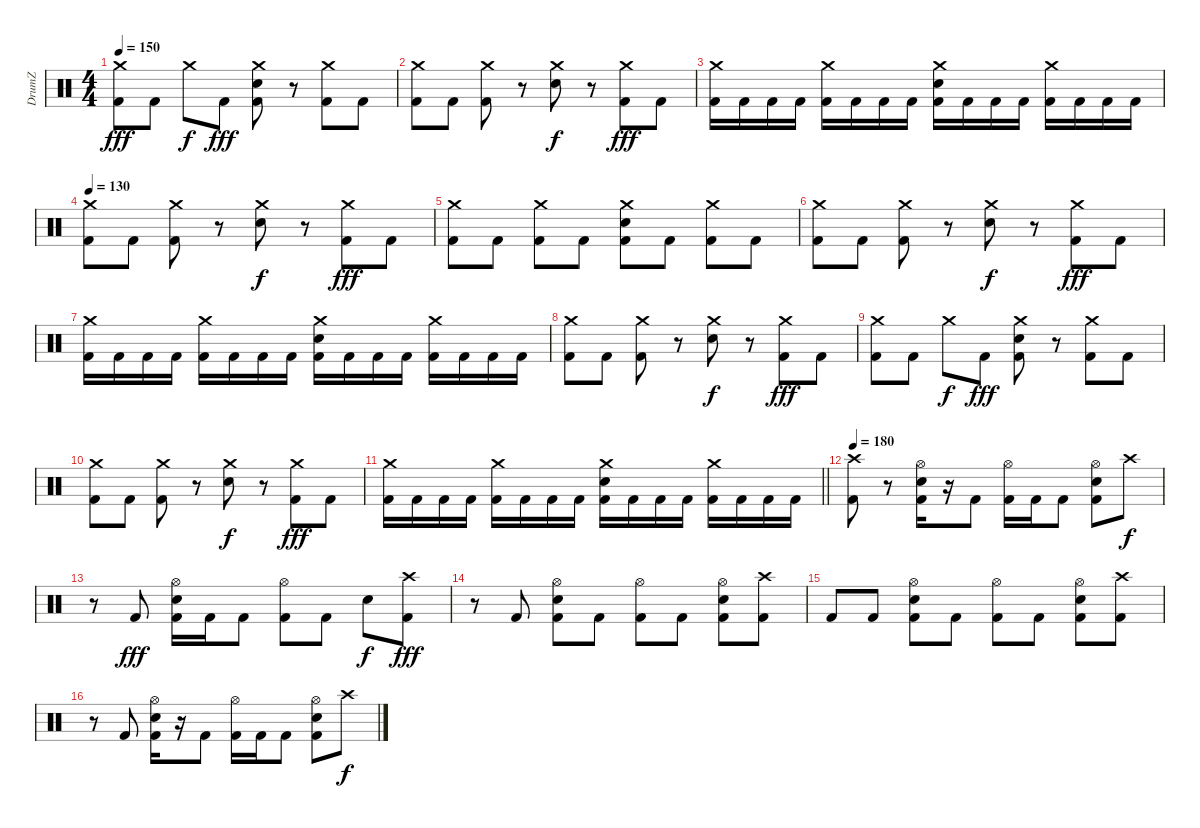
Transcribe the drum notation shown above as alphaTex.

\track ("DrumZ" "DrumZ") {instrument percussion}
\staff {score}
\articulation defaults
\ts (4 4)
\tempo 150
\clef neutral
\ks c
("Crash medium (hit)" "Kick (hit) 2").8{dy fff} "Kick (hit) 2".8 "Crash medium (hit)".8{dy f} "Kick (hit) 2".8{dy fff} ("Crash medium (hit)" "Electric Snare (hit)" "Kick (hit) 2").8 r.8 ("Crash medium (hit)" "Kick (hit) 2").8 "Kick (hit) 2".8 |
("Crash medium (hit)" "Kick (hit) 2").8 "Kick (hit) 2".8 ("Crash medium (hit)" "Kick (hit) 2").8 r.8 ("Crash medium (hit)" "Electric Snare (hit)").8{dy f} r.8 ("Crash medium (hit)" "Kick (hit) 2").8{dy fff} "Kick (hit) 2".8 |
("Crash medium (hit)" "Kick (hit) 2").16 "Kick (hit) 2".16 "Kick (hit) 2".16 "Kick (hit) 2".16 ("Crash medium (hit)" "Kick (hit) 2").16 "Kick (hit) 2".16 "Kick (hit) 2".16 "Kick (hit) 2".16 ("Crash medium (hit)" "Electric Snare (hit)" "Kick (hit) 2").16 "Kick (hit) 2".16 "Kick (hit) 2".16 "Kick (hit) 2".16 ("Crash medium (hit)" "Kick (hit) 2").16 "Kick (hit) 2".16 "Kick (hit) 2".16 "Kick (hit) 2".16 |
\tempo 130
("Crash medium (hit)" "Kick (hit) 2").8 "Kick (hit) 2".8 ("Crash medium (hit)" "Kick (hit) 2").8 r.8 ("Crash medium (hit)" "Electric Snare (hit)").8{dy f} r.8 ("Crash medium (hit)" "Kick (hit) 2").8{dy fff} "Kick (hit) 2".8 |
("Crash medium (hit)" "Kick (hit) 2").8 "Kick (hit) 2".8 ("Crash medium (hit)" "Kick (hit) 2").8 "Kick (hit) 2".8 ("Crash medium (hit)" "Electric Snare (hit)" "Kick (hit) 2").8 "Kick (hit) 2".8 ("Crash medium (hit)" "Kick (hit) 2").8 "Kick (hit) 2".8 |
("Crash medium (hit)" "Kick (hit) 2").8 "Kick (hit) 2".8 ("Crash medium (hit)" "Kick (hit) 2").8 r.8 ("Crash medium (hit)" "Electric Snare (hit)").8{dy f} r.8 ("Crash medium (hit)" "Kick (hit) 2").8{dy fff} "Kick (hit) 2".8 |
("Crash medium (hit)" "Kick (hit) 2").16 "Kick (hit) 2".16 "Kick (hit) 2".16 "Kick (hit) 2".16 ("Crash medium (hit)" "Kick (hit) 2").16 "Kick (hit) 2".16 "Kick (hit) 2".16 "Kick (hit) 2".16 ("Crash medium (hit)" "Electric Snare (hit)" "Kick (hit) 2").16 "Kick (hit) 2".16 "Kick (hit) 2".16 "Kick (hit) 2".16 ("Crash medium (hit)" "Kick (hit) 2").16 "Kick (hit) 2".16 "Kick (hit) 2".16 "Kick (hit) 2".16 |
("Crash medium (hit)" "Kick (hit) 2").8 "Kick (hit) 2".8 ("Crash medium (hit)" "Kick (hit) 2").8 r.8 ("Crash medium (hit)" "Electric Snare (hit)").8{dy f} r.8 ("Crash medium (hit)" "Kick (hit) 2").8{dy fff} "Kick (hit) 2".8 |
("Crash medium (hit)" "Kick (hit) 2").8 "Kick (hit) 2".8 "Crash medium (hit)".8{dy f} "Kick (hit) 2".8{dy fff} ("Crash medium (hit)" "Electric Snare (hit)" "Kick (hit) 2").8 r.8 ("Crash medium (hit)" "Kick (hit) 2").8 "Kick (hit) 2".8 |
("Crash medium (hit)" "Kick (hit) 2").8 "Kick (hit) 2".8 ("Crash medium (hit)" "Kick (hit) 2").8 r.8 ("Crash medium (hit)" "Electric Snare (hit)").8{dy f} r.8 ("Crash medium (hit)" "Kick (hit) 2").8{dy fff} "Kick (hit) 2".8 |
\barLineRight lightlight
("Crash medium (hit)" "Kick (hit) 2").16 "Kick (hit) 2".16 "Kick (hit) 2".16 "Kick (hit) 2".16 ("Crash medium (hit)" "Kick (hit) 2").16 "Kick (hit) 2".16 "Kick (hit) 2".16 "Kick (hit) 2".16 ("Crash medium (hit)" "Electric Snare (hit)" "Kick (hit) 2").16 "Kick (hit) 2".16 "Kick (hit) 2".16 "Kick (hit) 2".16 ("Crash medium (hit)" "Kick (hit) 2").16 "Kick (hit) 2".16 "Kick (hit) 2".16 "Kick (hit) 2".16 |
\section ("" "")
\tempo 180
("Crash high (hit)" "Kick (hit) 2").8 r.8 ("Hi-Hat (open)" "Electric Snare (hit)" "Kick (hit) 2").16 r.16 "Kick (hit) 2".8 ("Hi-Hat (open)" "Kick (hit) 2").16 "Kick (hit) 2".16 "Kick (hit) 2".8 ("Hi-Hat (open)" "Electric Snare (hit)" "Kick (hit) 2").8 "Crash high (hit)".8{dy f} |
r.8 "Kick (hit) 2".8{dy fff} ("Hi-Hat (open)" "Electric Snare (hit)" "Kick (hit) 2").16 "Kick (hit) 2".16 "Kick (hit) 2".8 ("Hi-Hat (open)" "Kick (hit) 2").8 "Kick (hit) 2".8 "Electric Snare (hit)".8{dy f} ("Crash high (hit)" "Kick (hit) 2").8{dy fff} |
r.8 "Kick (hit) 2".8 ("Hi-Hat (open)" "Electric Snare (hit)" "Kick (hit) 2").8 "Kick (hit) 2".8 ("Hi-Hat (open)" "Kick (hit) 2").8 "Kick (hit) 2".8 ("Hi-Hat (open)" "Electric Snare (hit)" "Kick (hit) 2").8 ("Crash high (hit)" "Kick (hit) 2").8 |
"Kick (hit) 2".8 "Kick (hit) 2".8 ("Hi-Hat (open)" "Electric Snare (hit)" "Kick (hit) 2").8 "Kick (hit) 2".8 ("Hi-Hat (open)" "Kick (hit) 2").8 "Kick (hit) 2".8 ("Hi-Hat (open)" "Electric Snare (hit)" "Kick (hit) 2").8 ("Crash high (hit)" "Kick (hit) 2").8 |
r.8 "Kick (hit) 2".8 ("Hi-Hat (open)" "Electric Snare (hit)" "Kick (hit) 2").16 r.16 "Kick (hit) 2".8 ("Hi-Hat (open)" "Kick (hit) 2").16 "Kick (hit) 2".16 "Kick (hit) 2".8 ("Hi-Hat (open)" "Electric Snare (hit)" "Kick (hit) 2").8 "Crash high (hit)".8{dy f}
